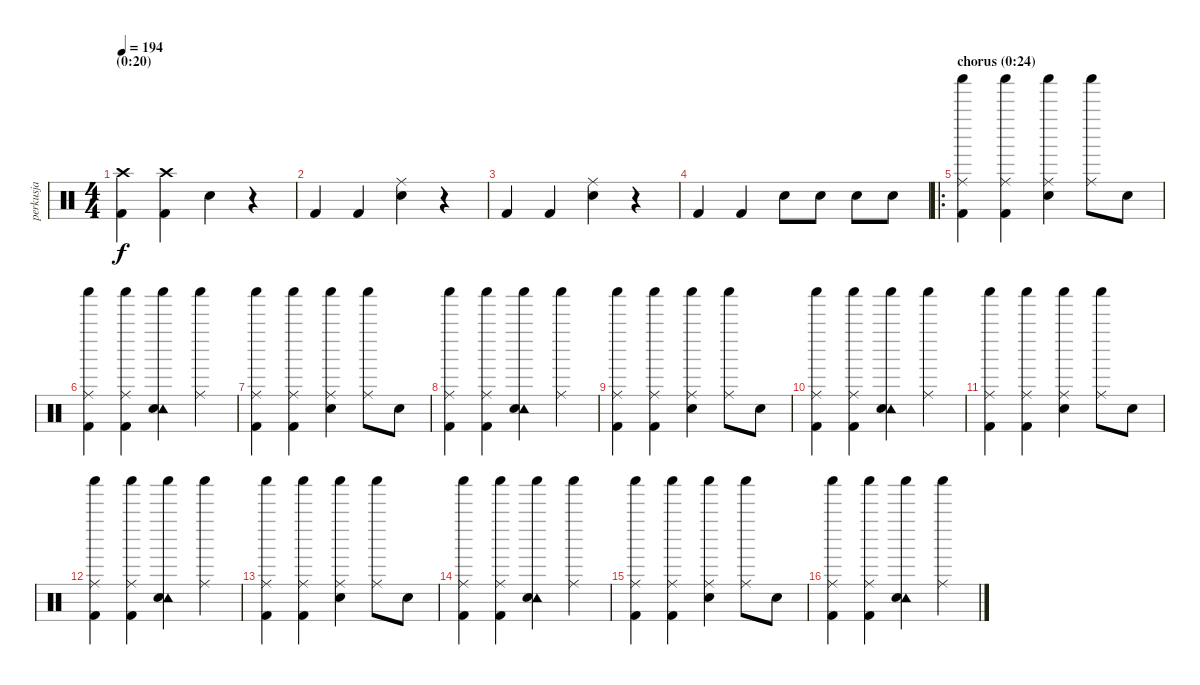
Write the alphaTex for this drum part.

\track ("perkusja" "perkusja") {instrument percussion}
\staff {score}
\articulation defaults
\ts (4 4)
\section ("" "(0:20)")
\tempo 194
\clef neutral
\ks c
("Crash high (hit)" "Kick (hit) 2").4{dy f} ("Crash high (hit)" "Kick (hit) 2").4 "Snare (hit) 2".4 r.4 |
"Kick (hit) 2".4 "Kick (hit) 2".4 ("Ride (middle)" "Snare (hit) 2").4 r.4 |
"Kick (hit) 2".4 "Kick (hit) 2".4 ("Ride (middle)" "Snare (hit) 2").4 r.4 |
"Kick (hit) 2".4 "Kick (hit) 2".4 "Snare (hit) 2".8 "Snare (hit) 2".8 "Snare (hit) 2".8 "Snare (hit) 2".8 |
\ro
\section ("" "chorus (0:24)")
("Ride (middle)" "Shaker (hit)" "Kick (hit) 2").4 ("Ride (middle)" "Shaker (hit)" "Kick (hit) 2").4 ("Ride (middle)" "Shaker (hit)" "Snare (hit) 2").4 ("Ride (middle)" "Shaker (hit)").8 "Snare (hit) 2".8 |
("Ride (middle)" "Shaker (hit)" "Kick (hit) 2").4 ("Ride (middle)" "Shaker (hit)" "Kick (hit) 2").4 ("Tambourine (hit)" "Shaker (hit)" "Snare (hit) 2").4 ("Ride (middle)" "Shaker (hit)").4 |
("Ride (middle)" "Shaker (hit)" "Kick (hit) 2").4 ("Ride (middle)" "Shaker (hit)" "Kick (hit) 2").4 ("Ride (middle)" "Shaker (hit)" "Snare (hit) 2").4 ("Ride (middle)" "Shaker (hit)").8 "Snare (hit) 2".8 |
("Ride (middle)" "Shaker (hit)" "Kick (hit) 2").4 ("Ride (middle)" "Shaker (hit)" "Kick (hit) 2").4 ("Tambourine (hit)" "Shaker (hit)" "Snare (hit) 2").4 ("Ride (middle)" "Shaker (hit)").4 |
("Ride (middle)" "Shaker (hit)" "Kick (hit) 2").4 ("Ride (middle)" "Shaker (hit)" "Kick (hit) 2").4 ("Ride (middle)" "Shaker (hit)" "Snare (hit) 2").4 ("Ride (middle)" "Shaker (hit)").8 "Snare (hit) 2".8 |
("Ride (middle)" "Shaker (hit)" "Kick (hit) 2").4 ("Ride (middle)" "Shaker (hit)" "Kick (hit) 2").4 ("Tambourine (hit)" "Shaker (hit)" "Snare (hit) 2").4 ("Ride (middle)" "Shaker (hit)").4 |
("Ride (middle)" "Shaker (hit)" "Kick (hit) 2").4 ("Ride (middle)" "Shaker (hit)" "Kick (hit) 2").4 ("Ride (middle)" "Shaker (hit)" "Snare (hit) 2").4 ("Ride (middle)" "Shaker (hit)").8 "Snare (hit) 2".8 |
("Ride (middle)" "Shaker (hit)" "Kick (hit) 2").4 ("Ride (middle)" "Shaker (hit)" "Kick (hit) 2").4 ("Tambourine (hit)" "Shaker (hit)" "Snare (hit) 2").4 ("Ride (middle)" "Shaker (hit)").4 |
("Ride (middle)" "Shaker (hit)" "Kick (hit) 2").4 ("Ride (middle)" "Shaker (hit)" "Kick (hit) 2").4 ("Ride (middle)" "Shaker (hit)" "Snare (hit) 2").4 ("Ride (middle)" "Shaker (hit)").8 "Snare (hit) 2".8 |
("Ride (middle)" "Shaker (hit)" "Kick (hit) 2").4 ("Ride (middle)" "Shaker (hit)" "Kick (hit) 2").4 ("Tambourine (hit)" "Shaker (hit)" "Snare (hit) 2").4 ("Ride (middle)" "Shaker (hit)").4 |
("Ride (middle)" "Shaker (hit)" "Kick (hit) 2").4 ("Ride (middle)" "Shaker (hit)" "Kick (hit) 2").4 ("Ride (middle)" "Shaker (hit)" "Snare (hit) 2").4 ("Ride (middle)" "Shaker (hit)").8 "Snare (hit) 2".8 |
("Ride (middle)" "Shaker (hit)" "Kick (hit) 2").4 ("Ride (middle)" "Shaker (hit)" "Kick (hit) 2").4 ("Tambourine (hit)" "Shaker (hit)" "Snare (hit) 2").4 ("Ride (middle)" "Shaker (hit)").4
